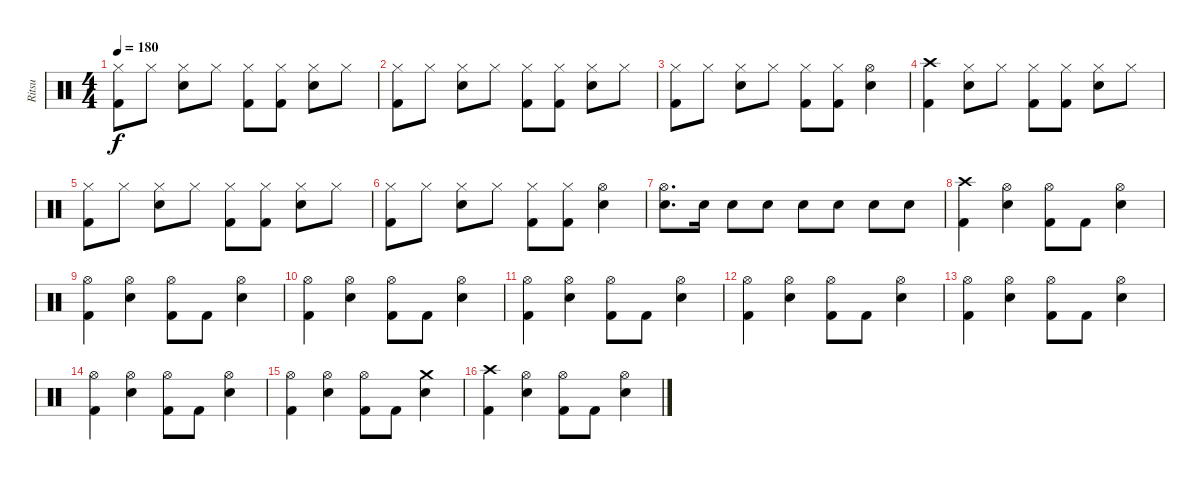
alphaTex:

\track ("Ritsu" "Ritsu") {instrument percussion}
\staff {score}
\articulation defaults
\ts (4 4)
\tempo 180
\clef neutral
\ks c
("Hi-Hat (closed)" "Kick (hit) 2").8{dy f} "Hi-Hat (closed)".8 ("Hi-Hat (closed)" "Snare (hit) 2").8 "Hi-Hat (closed)".8 ("Hi-Hat (closed)" "Kick (hit) 2").8 ("Hi-Hat (closed)" "Kick (hit) 2").8 ("Hi-Hat (closed)" "Snare (hit) 2").8 "Hi-Hat (closed)".8 |
("Hi-Hat (closed)" "Kick (hit) 2").8 "Hi-Hat (closed)".8 ("Hi-Hat (closed)" "Snare (hit) 2").8 "Hi-Hat (closed)".8 ("Hi-Hat (closed)" "Kick (hit) 2").8 ("Hi-Hat (closed)" "Kick (hit) 2").8 ("Hi-Hat (closed)" "Snare (hit) 2").8 "Hi-Hat (closed)".8 |
("Hi-Hat (closed)" "Kick (hit) 2").8 "Hi-Hat (closed)".8 ("Hi-Hat (closed)" "Snare (hit) 2").8 "Hi-Hat (closed)".8 ("Hi-Hat (closed)" "Kick (hit) 2").8 ("Hi-Hat (closed)" "Kick (hit) 2").8 ("Hi-Hat (open)" "Snare (hit) 2").4 |
("Crash high (hit)" "Kick (hit) 2").4 ("Hi-Hat (closed)" "Snare (hit) 2").8 "Hi-Hat (closed)".8 ("Hi-Hat (closed)" "Kick (hit) 2").8 ("Hi-Hat (closed)" "Kick (hit) 2").8 ("Hi-Hat (closed)" "Snare (hit) 2").8 "Hi-Hat (closed)".8 |
("Hi-Hat (closed)" "Kick (hit) 2").8 "Hi-Hat (closed)".8 ("Hi-Hat (closed)" "Snare (hit) 2").8 "Hi-Hat (closed)".8 ("Hi-Hat (closed)" "Kick (hit) 2").8 ("Hi-Hat (closed)" "Kick (hit) 2").8 ("Hi-Hat (closed)" "Snare (hit) 2").8 "Hi-Hat (closed)".8 |
("Hi-Hat (closed)" "Kick (hit) 2").8 "Hi-Hat (closed)".8 ("Hi-Hat (closed)" "Snare (hit) 2").8 "Hi-Hat (closed)".8 ("Hi-Hat (closed)" "Kick (hit) 2").8 ("Hi-Hat (closed)" "Kick (hit) 2").8 ("Hi-Hat (open)" "Snare (hit) 2").4 |
("Hi-Hat (open)" "Snare (hit) 2").8{d} "Snare (hit) 2".16 "Snare (hit) 2".8 "Snare (hit) 2".8 "Snare (hit) 2".8 "Snare (hit) 2".8 "Snare (hit) 2".8 "Snare (hit) 2".8 |
("Crash high (hit)" "Kick (hit) 2").4 ("Hi-Hat (open)" "Snare (hit) 2").4 ("Hi-Hat (open)" "Kick (hit) 2").8 "Kick (hit) 2".8 ("Hi-Hat (open)" "Snare (hit) 2").4 |
("Hi-Hat (open)" "Kick (hit) 2").4 ("Hi-Hat (open)" "Snare (hit) 2").4 ("Hi-Hat (open)" "Kick (hit) 2").8 "Kick (hit) 2".8 ("Hi-Hat (open)" "Snare (hit) 2").4 |
("Hi-Hat (open)" "Kick (hit) 2").4 ("Hi-Hat (open)" "Snare (hit) 2").4 ("Hi-Hat (open)" "Kick (hit) 2").8 "Kick (hit) 2".8 ("Hi-Hat (open)" "Snare (hit) 2").4 |
("Hi-Hat (open)" "Kick (hit) 2").4 ("Hi-Hat (open)" "Snare (hit) 2").4 ("Hi-Hat (open)" "Kick (hit) 2").8 "Kick (hit) 2".8 ("Hi-Hat (open)" "Snare (hit) 2").4 |
("Hi-Hat (open)" "Kick (hit) 2").4 ("Hi-Hat (open)" "Snare (hit) 2").4 ("Hi-Hat (open)" "Kick (hit) 2").8 "Kick (hit) 2".8 ("Hi-Hat (open)" "Snare (hit) 2").4 |
("Hi-Hat (open)" "Kick (hit) 2").4 ("Hi-Hat (open)" "Snare (hit) 2").4 ("Hi-Hat (open)" "Kick (hit) 2").8 "Kick (hit) 2".8 ("Hi-Hat (open)" "Snare (hit) 2").4 |
("Hi-Hat (open)" "Kick (hit) 2").4 ("Hi-Hat (open)" "Snare (hit) 2").4 ("Hi-Hat (open)" "Kick (hit) 2").8 "Kick (hit) 2".8 ("Hi-Hat (open)" "Snare (hit) 2").4 |
("Hi-Hat (open)" "Kick (hit) 2").4 ("Hi-Hat (open)" "Snare (hit) 2").4 ("Hi-Hat (open)" "Kick (hit) 2").8 "Kick (hit) 2".8 ("Crash medium (hit)" "Snare (hit) 2").4 |
("Crash high (hit)" "Kick (hit) 2").4 ("Hi-Hat (open)" "Snare (hit) 2").4 ("Hi-Hat (open)" "Kick (hit) 2").8 "Kick (hit) 2".8 ("Hi-Hat (open)" "Snare (hit) 2").4
